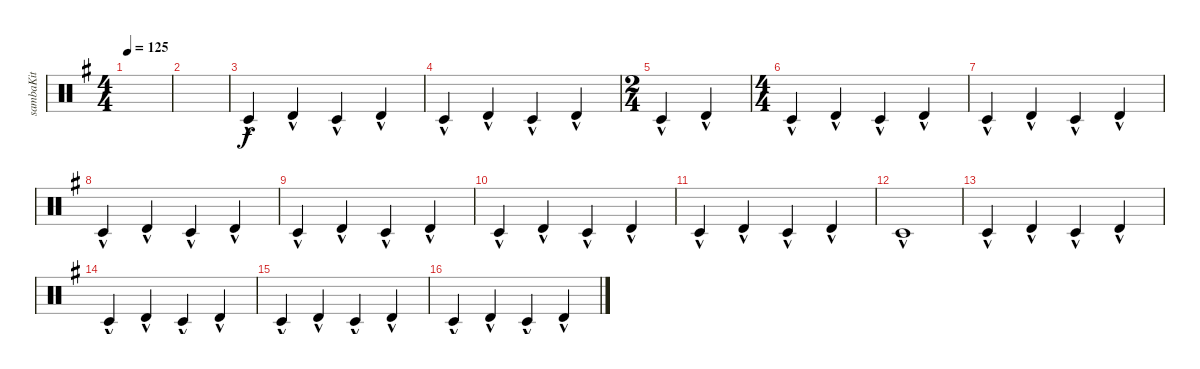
\defaultSystemsLayout 4
\bracketExtendMode groupsimilarinstruments
\otherSystemsTrackNameOrientation horizontal
\track ("Kit-Samba" "sambaKit") {instrument percussion}
\staff {score}
\articulation defaults
\ts (4 4)
\tempo 125
\clef neutral
\scale
0.333333
\ks g
|
\scale
0.333333 |
\scale
0.262911 "Timbale low (hit)"{hac acc forcenatural}.4{beam Up} "Timbale high (hit)"{hac acc forcenatural}.4{beam Up} "Timbale low (hit)"{hac acc forcenatural}.4{beam Up} "Timbale high (hit)"{hac acc forcenatural}.4{beam Up} |
\scale
0.262911 "Timbale low (hit)"{hac acc forcenatural}.4{beam Up} "Timbale high (hit)"{hac acc forcenatural}.4{beam Up} "Timbale low (hit)"{hac acc forcenatural}.4{beam Up} "Timbale high (hit)"{hac acc forcenatural}.4{beam Up} |
\ts (2 4)
\scale
0.474178 "Timbale low (hit)"{hac acc forcenatural}.4{beam Up} "Timbale high (hit)"{hac acc forcenatural}.4{beam Up} |
\ts (4 4)
\scale
0.474178 "Timbale low (hit)"{hac acc forcenatural}.4{beam Up} "Timbale high (hit)"{hac acc forcenatural}.4{beam Up} "Timbale low (hit)"{hac acc forcenatural}.4{beam Up} "Timbale high (hit)"{hac acc forcenatural}.4{beam Up} |
\scale
0.262911 "Timbale low (hit)"{hac acc forcenatural}.4{beam Up} "Timbale high (hit)"{hac acc forcenatural}.4{beam Up} "Timbale low (hit)"{hac acc forcenatural}.4{beam Up} "Timbale high (hit)"{hac acc forcenatural}.4{beam Up} |
\scale
0.262911 "Timbale low (hit)"{hac acc forcenatural}.4{beam Up} "Timbale high (hit)"{hac acc forcenatural}.4{beam Up} "Timbale low (hit)"{hac acc forcenatural}.4{beam Up} "Timbale high (hit)"{hac acc forcenatural}.4{beam Up} |
\scale
0.333333 "Timbale low (hit)"{hac acc forcenatural}.4{beam Up} "Timbale high (hit)"{hac acc forcenatural}.4{beam Up} "Timbale low (hit)"{hac acc forcenatural}.4{beam Up} "Timbale high (hit)"{hac acc forcenatural}.4{beam Up} |
\scale
0.333333 "Timbale low (hit)"{hac acc forcenatural}.4{beam Up} "Timbale high (hit)"{hac acc forcenatural}.4{beam Up} "Timbale low (hit)"{hac acc forcenatural}.4{beam Up} "Timbale high (hit)"{hac acc forcenatural}.4{beam Up} |
\scale
0.333333 "Timbale low (hit)"{hac acc forcenatural}.4{beam Up} "Timbale high (hit)"{hac acc forcenatural}.4{beam Up} "Timbale low (hit)"{hac acc forcenatural}.4{beam Up} "Timbale high (hit)"{hac acc forcenatural}.4{beam Up} |
\scale
0.333333 "Timbale low (hit)"{hac acc forcenatural}.1{beam Up} |
\scale
0.333333 "Timbale low (hit)"{hac acc forcenatural}.4{beam Up} "Timbale high (hit)"{hac acc forcenatural}.4{beam Up} "Timbale low (hit)"{hac acc forcenatural}.4{beam Up} "Timbale high (hit)"{hac acc forcenatural}.4{beam Up} |
\scale
0.333333 "Timbale low (hit)"{hac acc forcenatural}.4{beam Up} "Timbale high (hit)"{hac acc forcenatural}.4{beam Up} "Timbale low (hit)"{hac acc forcenatural}.4{beam Up} "Timbale high (hit)"{hac acc forcenatural}.4{beam Up} |
\scale
0.333333 "Timbale low (hit)"{hac acc forcenatural}.4{beam Up} "Timbale high (hit)"{hac acc forcenatural}.4{beam Up} "Timbale low (hit)"{hac acc forcenatural}.4{beam Up} "Timbale high (hit)"{hac acc forcenatural}.4{beam Up} |
\scale
0.333333 "Timbale low (hit)"{hac acc forcenatural}.4{beam Up} "Timbale high (hit)"{hac acc forcenatural}.4{beam Up} "Timbale low (hit)"{hac acc forcenatural}.4{beam Up} "Timbale high (hit)"{hac acc forcenatural}.4{beam Up}
